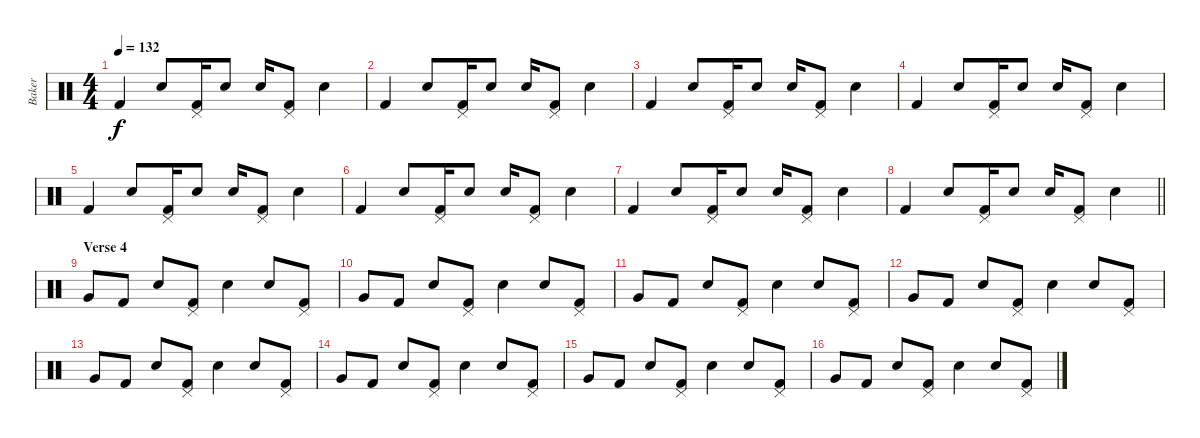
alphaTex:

\track ("Baker" "Baker") {instrument percussion}
\staff {score}
\articulation defaults
\ts (4 4)
\tempo 132
\clef neutral
\ks c "Kick (hit) 2".4{dy f} "Snare (hit) 2".8
("Pedal Hi-Hat (hit)" "Kick (hit) 2").16 "Snare (hit) 2".8 "Snare (hit) 2".16 ("Pedal Hi-Hat (hit)" "Kick (hit) 2").8 "Snare (hit) 2".4 |
"Kick (hit) 2".4 "Snare (hit) 2".8 ("Pedal Hi-Hat (hit)" "Kick (hit) 2").16 "Snare (hit) 2".8 "Snare (hit) 2".16 ("Pedal Hi-Hat (hit)" "Kick (hit) 2").8 "Snare (hit) 2".4 |
"Kick (hit) 2".4 "Snare (hit) 2".8 ("Pedal Hi-Hat (hit)" "Kick (hit) 2").16 "Snare (hit) 2".8 "Snare (hit) 2".16 ("Pedal Hi-Hat (hit)" "Kick (hit) 2").8 "Snare (hit) 2".4 |
"Kick (hit) 2".4 "Snare (hit) 2".8 ("Pedal Hi-Hat (hit)" "Kick (hit) 2").16 "Snare (hit) 2".8 "Snare (hit) 2".16 ("Pedal Hi-Hat (hit)" "Kick (hit) 2").8 "Snare (hit) 2".4 |
"Kick (hit) 2".4 "Snare (hit) 2".8 ("Pedal Hi-Hat (hit)" "Kick (hit) 2").16 "Snare (hit) 2".8 "Snare (hit) 2".16 ("Pedal Hi-Hat (hit)" "Kick (hit) 2").8 "Snare (hit) 2".4 |
"Kick (hit) 2".4 "Snare (hit) 2".8 ("Pedal Hi-Hat (hit)" "Kick (hit) 2").16 "Snare (hit) 2".8 "Snare (hit) 2".16 ("Pedal Hi-Hat (hit)" "Kick (hit) 2").8 "Snare (hit) 2".4 |
"Kick (hit) 2".4 "Snare (hit) 2".8 ("Pedal Hi-Hat (hit)" "Kick (hit) 2").16 "Snare (hit) 2".8 "Snare (hit) 2".16 ("Pedal Hi-Hat (hit)" "Kick (hit) 2").8 "Snare (hit) 2".4 |
\barLineRight lightlight "Kick (hit) 2".4 "Snare (hit) 2".8
("Pedal Hi-Hat (hit)" "Kick (hit) 2").16 "Snare (hit) 2".8 "Snare (hit) 2".16 ("Pedal Hi-Hat (hit)" "Kick (hit) 2").8 "Snare (hit) 2".4 |
\section ("" "Verse 4")
"Very Low Tom (hit)".8 "Kick (hit) 2".8 "Snare (hit) 2".8 ("Pedal Hi-Hat (hit)" "Kick (hit) 2").8 "Snare (hit) 2".4 "Snare (hit) 2".8 ("Pedal Hi-Hat (hit)" "Kick (hit) 2").8 |
"Very Low Tom (hit)".8 "Kick (hit) 2".8 "Snare (hit) 2".8 ("Pedal Hi-Hat (hit)" "Kick (hit) 2").8 "Snare (hit) 2".4 "Snare (hit) 2".8 ("Pedal Hi-Hat (hit)" "Kick (hit) 2").8 |
"Very Low Tom (hit)".8 "Kick (hit) 2".8 "Snare (hit) 2".8 ("Pedal Hi-Hat (hit)" "Kick (hit) 2").8 "Snare (hit) 2".4 "Snare (hit) 2".8 ("Pedal Hi-Hat (hit)" "Kick (hit) 2").8 |
"Very Low Tom (hit)".8 "Kick (hit) 2".8 "Snare (hit) 2".8 ("Pedal Hi-Hat (hit)" "Kick (hit) 2").8 "Snare (hit) 2".4 "Snare (hit) 2".8 ("Pedal Hi-Hat (hit)" "Kick (hit) 2").8 |
"Very Low Tom (hit)".8 "Kick (hit) 2".8 "Snare (hit) 2".8 ("Pedal Hi-Hat (hit)" "Kick (hit) 2").8 "Snare (hit) 2".4 "Snare (hit) 2".8 ("Pedal Hi-Hat (hit)" "Kick (hit) 2").8 |
"Very Low Tom (hit)".8 "Kick (hit) 2".8 "Snare (hit) 2".8 ("Pedal Hi-Hat (hit)" "Kick (hit) 2").8 "Snare (hit) 2".4 "Snare (hit) 2".8 ("Pedal Hi-Hat (hit)" "Kick (hit) 2").8 |
"Very Low Tom (hit)".8 "Kick (hit) 2".8 "Snare (hit) 2".8 ("Pedal Hi-Hat (hit)" "Kick (hit) 2").8 "Snare (hit) 2".4 "Snare (hit) 2".8 ("Pedal Hi-Hat (hit)" "Kick (hit) 2").8 |
"Very Low Tom (hit)".8 "Kick (hit) 2".8 "Snare (hit) 2".8 ("Pedal Hi-Hat (hit)" "Kick (hit) 2").8 "Snare (hit) 2".4 "Snare (hit) 2".8 ("Pedal Hi-Hat (hit)" "Kick (hit) 2").8
